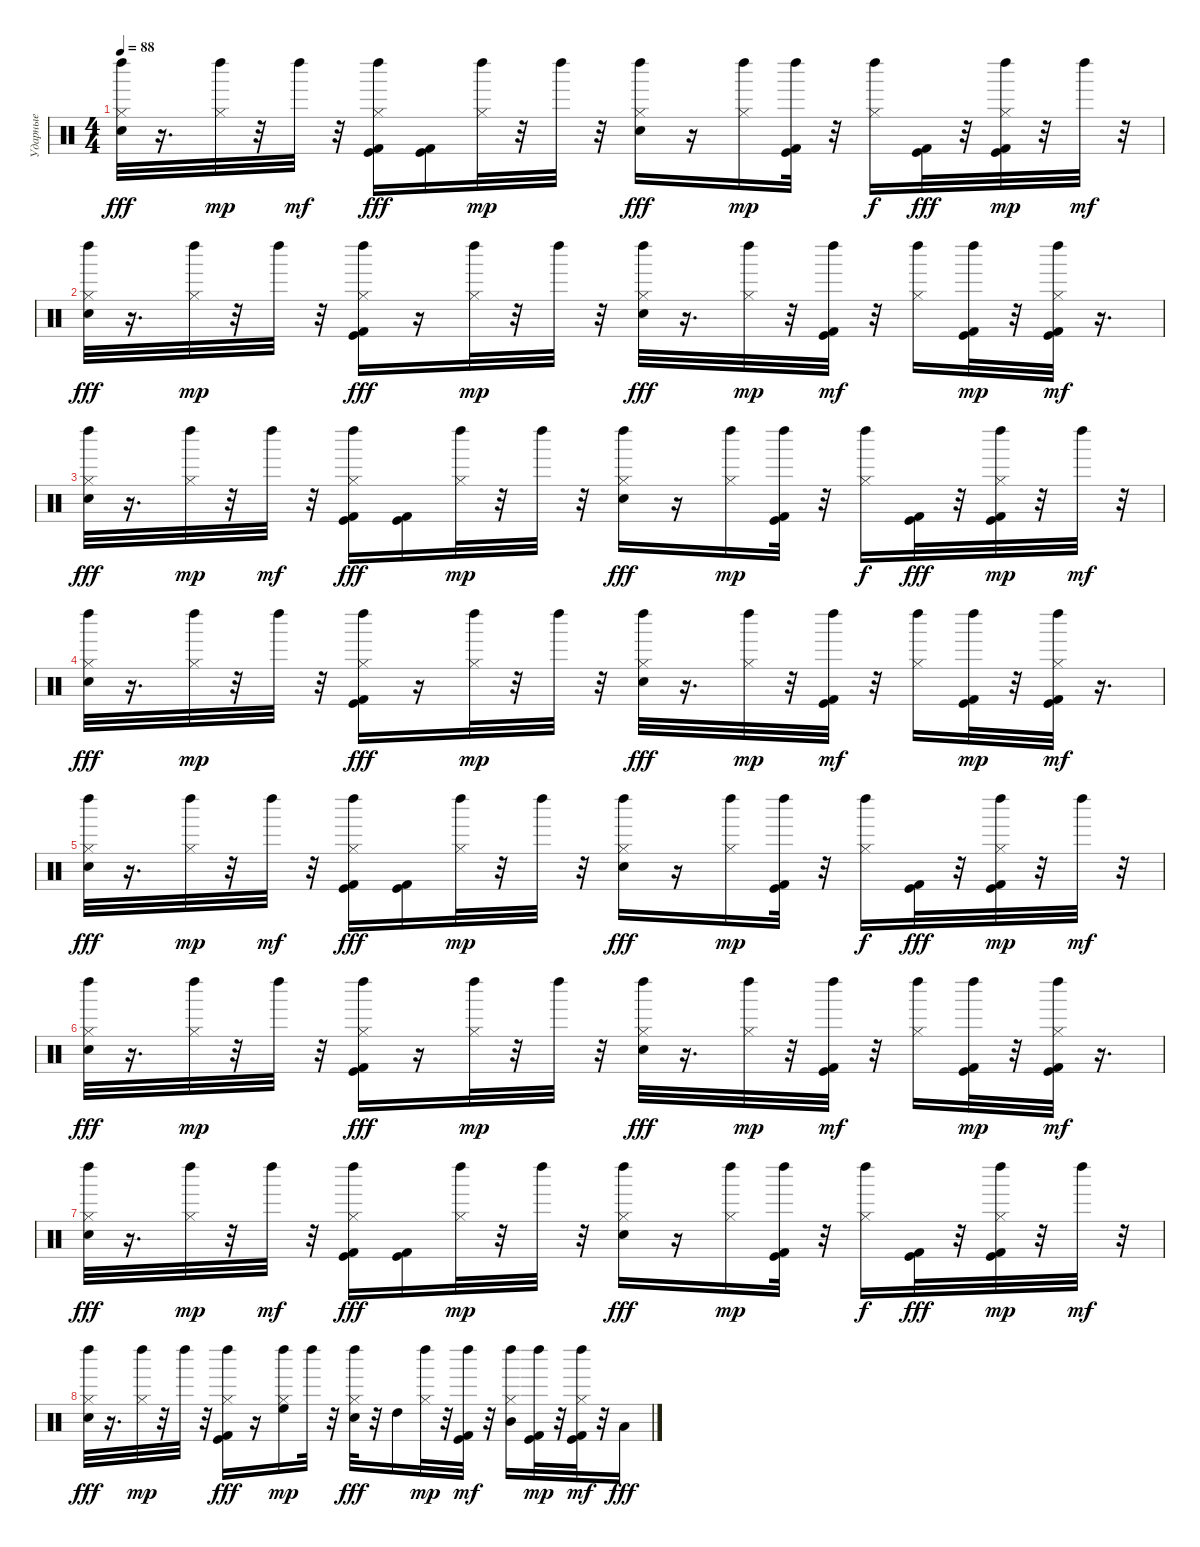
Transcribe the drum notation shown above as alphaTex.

\track ("Ударные" "Ударные") {instrument percussion}
\staff {score}
\articulation defaults
\ts (4 4)
\tempo 88
\clef neutral
\ks c
("Snare (hit) 2" "Hi-Hat (closed)" "Left Maraca (hit)").32{dy fff} r.16{d} ("Hi-Hat (closed)" "Left Maraca (hit)").32{dy mp} r.32 "Left Maraca (hit)".32{dy mf} r.32 ("Kick (hit)" "Kick (hit) 2" "Hi-Hat (closed)" "Left Maraca (hit)").16{dy fff} ("Kick (hit)" "Kick (hit) 2").16 ("Hi-Hat (closed)" "Left Maraca (hit)").32{dy mp} r.32 "Left Maraca (hit)".32 r.32 ("Snare (hit) 2" "Hi-Hat (closed)" "Left Maraca (hit)").16{dy fff} r.16 ("Hi-Hat (closed)" "Left Maraca (hit)").16{dy mp} ("Kick (hit)" "Kick (hit) 2" "Left Maraca (hit)").32 r.32 ("Hi-Hat (closed)" "Left Maraca (hit)").16{dy f} ("Kick (hit)" "Kick (hit) 2").32{dy fff} r.32 ("Kick (hit)" "Kick (hit) 2" "Hi-Hat (closed)" "Left Maraca (hit)").32{dy mp} r.32 "Left Maraca (hit)".32{dy mf} r.32 |
("Snare (hit) 2" "Hi-Hat (closed)" "Left Maraca (hit)").32{dy fff} r.16{d} ("Hi-Hat (closed)" "Left Maraca (hit)").32{dy mp} r.32 "Left Maraca (hit)".32 r.32 ("Kick (hit)" "Kick (hit) 2" "Hi-Hat (closed)" "Left Maraca (hit)").16{dy fff} r.16 ("Hi-Hat (closed)" "Left Maraca (hit)").32{dy mp} r.32 "Left Maraca (hit)".32 r.32 ("Snare (hit) 2" "Hi-Hat (closed)" "Left Maraca (hit)").32{dy fff} r.16{d} ("Hi-Hat (closed)" "Left Maraca (hit)").32{dy mp} r.32 ("Kick (hit)" "Kick (hit) 2" "Left Maraca (hit)").32{dy mf} r.32 ("Hi-Hat (closed)" "Left Maraca (hit)").16 ("Kick (hit)" "Kick (hit) 2" "Left Maraca (hit)").32{dy mp} r.32 ("Kick (hit)" "Kick (hit) 2" "Hi-Hat (closed)" "Left Maraca (hit)").32{dy mf} r.16{d} |
("Snare (hit) 2" "Hi-Hat (closed)" "Left Maraca (hit)").32{dy fff} r.16{d} ("Hi-Hat (closed)" "Left Maraca (hit)").32{dy mp} r.32 "Left Maraca (hit)".32{dy mf} r.32 ("Kick (hit)" "Kick (hit) 2" "Hi-Hat (closed)" "Left Maraca (hit)").16{dy fff} ("Kick (hit)" "Kick (hit) 2").16 ("Hi-Hat (closed)" "Left Maraca (hit)").32{dy mp} r.32 "Left Maraca (hit)".32 r.32 ("Snare (hit) 2" "Hi-Hat (closed)" "Left Maraca (hit)").16{dy fff} r.16 ("Hi-Hat (closed)" "Left Maraca (hit)").16{dy mp} ("Kick (hit)" "Kick (hit) 2" "Left Maraca (hit)").32 r.32 ("Hi-Hat (closed)" "Left Maraca (hit)").16{dy f} ("Kick (hit)" "Kick (hit) 2").32{dy fff} r.32 ("Kick (hit)" "Kick (hit) 2" "Hi-Hat (closed)" "Left Maraca (hit)").32{dy mp} r.32 "Left Maraca (hit)".32{dy mf} r.32 |
("Snare (hit) 2" "Hi-Hat (closed)" "Left Maraca (hit)").32{dy fff} r.16{d} ("Hi-Hat (closed)" "Left Maraca (hit)").32{dy mp} r.32 "Left Maraca (hit)".32 r.32 ("Kick (hit)" "Kick (hit) 2" "Hi-Hat (closed)" "Left Maraca (hit)").16{dy fff} r.16 ("Hi-Hat (closed)" "Left Maraca (hit)").32{dy mp} r.32 "Left Maraca (hit)".32 r.32 ("Snare (hit) 2" "Hi-Hat (closed)" "Left Maraca (hit)").32{dy fff} r.16{d} ("Hi-Hat (closed)" "Left Maraca (hit)").32{dy mp} r.32 ("Kick (hit)" "Kick (hit) 2" "Left Maraca (hit)").32{dy mf} r.32 ("Hi-Hat (closed)" "Left Maraca (hit)").16 ("Kick (hit)" "Kick (hit) 2" "Left Maraca (hit)").32{dy mp} r.32 ("Kick (hit)" "Kick (hit) 2" "Hi-Hat (closed)" "Left Maraca (hit)").32{dy mf} r.16{d} |
("Snare (hit) 2" "Hi-Hat (closed)" "Left Maraca (hit)").32{dy fff} r.16{d} ("Hi-Hat (closed)" "Left Maraca (hit)").32{dy mp} r.32 "Left Maraca (hit)".32{dy mf} r.32 ("Kick (hit)" "Kick (hit) 2" "Hi-Hat (closed)" "Left Maraca (hit)").16{dy fff} ("Kick (hit)" "Kick (hit) 2").16 ("Hi-Hat (closed)" "Left Maraca (hit)").32{dy mp} r.32 "Left Maraca (hit)".32 r.32 ("Snare (hit) 2" "Hi-Hat (closed)" "Left Maraca (hit)").16{dy fff} r.16 ("Hi-Hat (closed)" "Left Maraca (hit)").16{dy mp} ("Kick (hit)" "Kick (hit) 2" "Left Maraca (hit)").32 r.32 ("Hi-Hat (closed)" "Left Maraca (hit)").16{dy f} ("Kick (hit)" "Kick (hit) 2").32{dy fff} r.32 ("Kick (hit)" "Kick (hit) 2" "Hi-Hat (closed)" "Left Maraca (hit)").32{dy mp} r.32 "Left Maraca (hit)".32{dy mf} r.32 |
("Snare (hit) 2" "Hi-Hat (closed)" "Left Maraca (hit)").32{dy fff} r.16{d} ("Hi-Hat (closed)" "Left Maraca (hit)").32{dy mp} r.32 "Left Maraca (hit)".32 r.32 ("Kick (hit)" "Kick (hit) 2" "Hi-Hat (closed)" "Left Maraca (hit)").16{dy fff} r.16 ("Hi-Hat (closed)" "Left Maraca (hit)").32{dy mp} r.32 "Left Maraca (hit)".32 r.32 ("Snare (hit) 2" "Hi-Hat (closed)" "Left Maraca (hit)").32{dy fff} r.16{d} ("Hi-Hat (closed)" "Left Maraca (hit)").32{dy mp} r.32 ("Kick (hit)" "Kick (hit) 2" "Left Maraca (hit)").32{dy mf} r.32 ("Hi-Hat (closed)" "Left Maraca (hit)").16 ("Kick (hit)" "Kick (hit) 2" "Left Maraca (hit)").32{dy mp} r.32 ("Kick (hit)" "Kick (hit) 2" "Hi-Hat (closed)" "Left Maraca (hit)").32{dy mf} r.16{d} |
("Snare (hit) 2" "Hi-Hat (closed)" "Left Maraca (hit)").32{dy fff} r.16{d} ("Hi-Hat (closed)" "Left Maraca (hit)").32{dy mp} r.32 "Left Maraca (hit)".32{dy mf} r.32 ("Kick (hit)" "Kick (hit) 2" "Hi-Hat (closed)" "Left Maraca (hit)").16{dy fff} ("Kick (hit)" "Kick (hit) 2").16 ("Hi-Hat (closed)" "Left Maraca (hit)").32{dy mp} r.32 "Left Maraca (hit)".32 r.32 ("Snare (hit) 2" "Hi-Hat (closed)" "Left Maraca (hit)").16{dy fff} r.16 ("Hi-Hat (closed)" "Left Maraca (hit)").16{dy mp} ("Kick (hit)" "Kick (hit) 2" "Left Maraca (hit)").32 r.32 ("Hi-Hat (closed)" "Left Maraca (hit)").16{dy f} ("Kick (hit)" "Kick (hit) 2").32{dy fff} r.32 ("Kick (hit)" "Kick (hit) 2" "Hi-Hat (closed)" "Left Maraca (hit)").32{dy mp} r.32 "Left Maraca (hit)".32{dy mf} r.32 |
("Snare (hit) 2" "Hi-Hat (closed)" "Left Maraca (hit)").32{dy fff} r.16{d} ("Hi-Hat (closed)" "Left Maraca (hit)").32{dy mp} r.32 "Left Maraca (hit)".32 r.32 ("Kick (hit)" "Kick (hit) 2" "Hi-Hat (closed)" "Left Maraca (hit)").16{dy fff} r.16 ("Hi-Hat (closed)" "High Floor Tom (hit)" "Left Maraca (hit)").16{dy mp} "Left Maraca (hit)".32 r.32 ("Snare (hit) 2" "Hi-Hat (closed)" "Left Maraca (hit)").32{dy fff} r.32 "High Tom (hit)".16 ("Hi-Hat (closed)" "Left Maraca (hit)").32{dy mp} r.32 ("Kick (hit)" "Kick (hit) 2" "Left Maraca (hit)").32{dy mf} r.32 ("Hi-Hat (closed)" "Mid Tom (hit)" "Left Maraca (hit)").16 ("Kick (hit)" "Kick (hit) 2" "Left Maraca (hit)").32{dy mp} r.32 ("Kick (hit)" "Kick (hit) 2" "Hi-Hat (closed)" "Left Maraca (hit)").32{dy mf} r.32 "Low Tom (hit)".16{dy fff}
